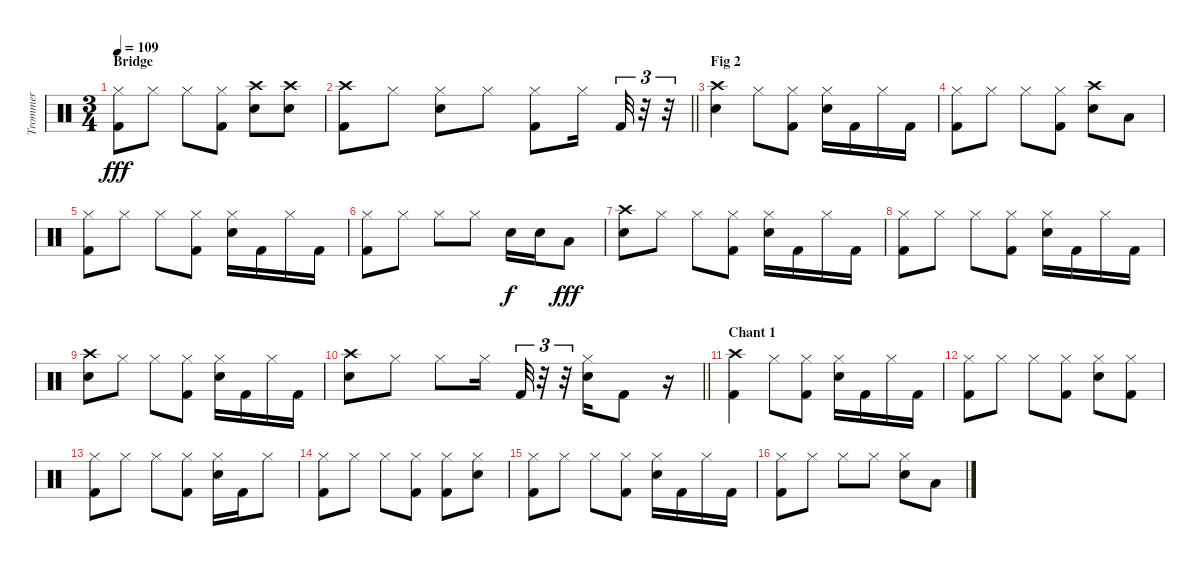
\track ("Trommer" "Trommer") {instrument percussion}
\staff {score}
\articulation defaults
\ts (3 4)
\section ("" "Bridge")
\tempo 109
\clef neutral
\ks c
("Hi-Hat (closed)" "Kick (hit) 2").8{dy fff} "Hi-Hat (closed)".8 "Hi-Hat (closed)".8 ("Hi-Hat (closed)" "Kick (hit) 2").8 ("Crash high (hit)" "Electric Snare (hit)").8 ("Crash high (hit)" "Electric Snare (hit)").8 |
\barLineRight lightlight
("Crash high (hit)" "Kick (hit) 2").8 "Hi-Hat (closed)".8 ("Hi-Hat (closed)" "Electric Snare (hit)").8 "Hi-Hat (closed)".8 ("Hi-Hat (closed)" "Kick (hit) 2").8 "Hi-Hat (closed)".16 "Kick (hit) 2".32{tu (3 2)} r.32{tu (3 2)} r.32{tu (3 2)} |
\section ("" "Fig 2")
("Crash high (hit)" "Electric Snare (hit)").4 "Hi-Hat (closed)".8 ("Hi-Hat (closed)" "Kick (hit) 2").8 ("Hi-Hat (closed)" "Electric Snare (hit)").16 "Kick (hit) 2".16 "Hi-Hat (closed)".16 "Kick (hit) 2".16 |
("Hi-Hat (closed)" "Kick (hit) 2").8 "Hi-Hat (closed)".8 "Hi-Hat (closed)".8 ("Hi-Hat (closed)" "Kick (hit) 2").8 ("Crash high (hit)" "Electric Snare (hit)").8 "Low Tom (hit)".8 |
("Hi-Hat (closed)" "Kick (hit) 2").8 "Hi-Hat (closed)".8 "Hi-Hat (closed)".8 ("Hi-Hat (closed)" "Kick (hit) 2").8 ("Hi-Hat (closed)" "Electric Snare (hit)").16 "Kick (hit) 2".16 "Hi-Hat (closed)".16 "Kick (hit) 2".16 |
("Hi-Hat (closed)" "Kick (hit) 2").8 "Hi-Hat (closed)".8 "Hi-Hat (closed)".8 "Hi-Hat (closed)".8 "Electric Snare (hit)".16{dy f} "Electric Snare (hit)".16 "Low Tom (hit)".8{dy fff} |
("Crash high (hit)" "Electric Snare (hit)").8 "Hi-Hat (closed)".8 "Hi-Hat (closed)".8 ("Hi-Hat (closed)" "Kick (hit) 2").8 ("Hi-Hat (closed)" "Electric Snare (hit)").16 "Kick (hit) 2".16 "Hi-Hat (closed)".16 "Kick (hit) 2".16 |
("Hi-Hat (closed)" "Kick (hit) 2").8 "Hi-Hat (closed)".8 "Hi-Hat (closed)".8 ("Hi-Hat (closed)" "Kick (hit) 2").8 ("Hi-Hat (closed)" "Electric Snare (hit)").16 "Kick (hit) 2".16 "Hi-Hat (closed)".16 "Kick (hit) 2".16 |
("Crash high (hit)" "Electric Snare (hit)").8 "Hi-Hat (closed)".8 "Hi-Hat (closed)".8 ("Hi-Hat (closed)" "Kick (hit) 2").8 ("Hi-Hat (closed)" "Electric Snare (hit)").16 "Kick (hit) 2".16 "Hi-Hat (closed)".16 "Kick (hit) 2".16 |
\barLineRight lightlight
("Crash high (hit)" "Electric Snare (hit)").8 "Hi-Hat (closed)".8 "Hi-Hat (closed)".8 "Hi-Hat (closed)".16 "Kick (hit) 2".32{tu (3 2)} r.32{tu (3 2)} r.32{tu (3 2)} ("Hi-Hat (closed)" "Electric Snare (hit)").16 "Kick (hit) 2".8 r.16 |
\section ("" "Chant 1")
("Crash high (hit)" "Kick (hit) 2").4 "Hi-Hat (closed)".8 ("Hi-Hat (closed)" "Kick (hit) 2").8 ("Hi-Hat (closed)" "Electric Snare (hit)").16 "Kick (hit) 2".16 "Hi-Hat (closed)".16 "Kick (hit) 2".16 |
("Hi-Hat (closed)" "Kick (hit) 2").8 "Hi-Hat (closed)".8 "Hi-Hat (closed)".8 ("Hi-Hat (closed)" "Kick (hit) 2").8 ("Hi-Hat (closed)" "Electric Snare (hit)").8 ("Hi-Hat (closed)" "Kick (hit) 2").8 |
("Hi-Hat (closed)" "Kick (hit) 2").8 "Hi-Hat (closed)".8 "Hi-Hat (closed)".8 ("Hi-Hat (closed)" "Kick (hit) 2").8 ("Hi-Hat (closed)" "Electric Snare (hit)").16 "Kick (hit) 2".16 "Hi-Hat (closed)".8 |
("Hi-Hat (closed)" "Kick (hit) 2").8 "Hi-Hat (closed)".8 "Hi-Hat (closed)".8 ("Hi-Hat (closed)" "Kick (hit) 2").8 ("Hi-Hat (closed)" "Kick (hit) 2").8 ("Hi-Hat (closed)" "Electric Snare (hit)").8 |
("Hi-Hat (closed)" "Kick (hit) 2").8 "Hi-Hat (closed)".8 "Hi-Hat (closed)".8 ("Hi-Hat (closed)" "Kick (hit) 2").8 ("Hi-Hat (closed)" "Electric Snare (hit)").16 "Kick (hit) 2".16 "Hi-Hat (closed)".16 "Kick (hit) 2".16 |
("Hi-Hat (closed)" "Kick (hit) 2").8 "Hi-Hat (closed)".8 "Hi-Hat (closed)".8 "Hi-Hat (closed)".8 ("Hi-Hat (closed)" "Electric Snare (hit)").8 "Low Tom (hit)".8
